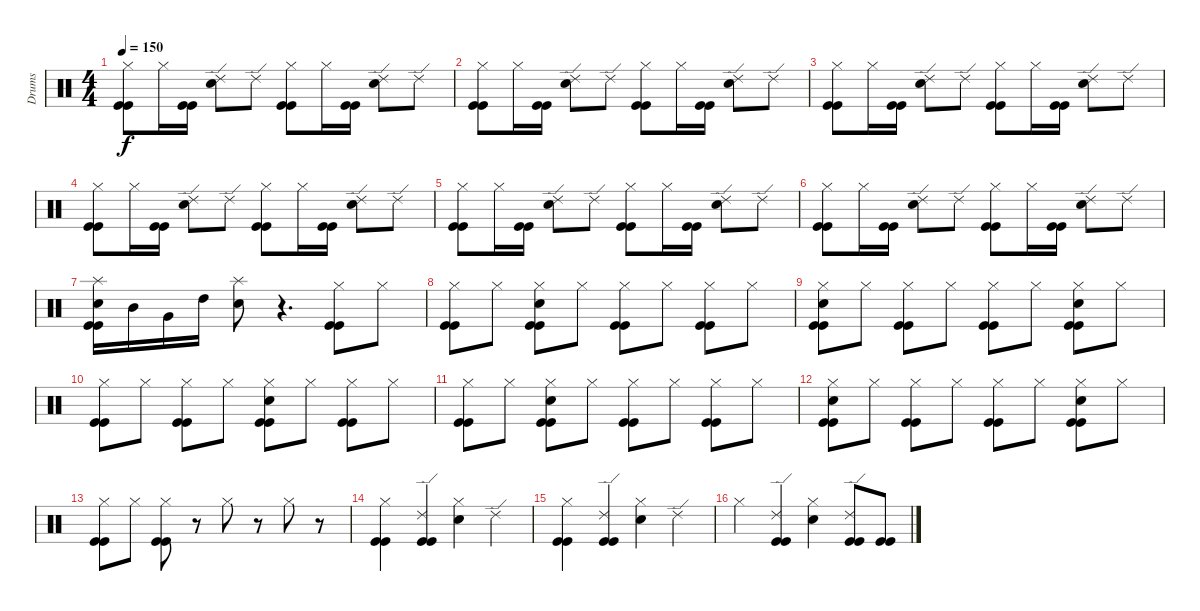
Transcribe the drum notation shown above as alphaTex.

\track ("Drums" "Drums") {instrument percussion}
\staff {score}
\articulation defaults
\ts (4 4)
\tempo 150
\clef neutral
\ks c
("Hi-Hat (closed)" "Kick (hit)" "Kick (hit)").8{dy f} "Hi-Hat (closed)".16 ("Kick (hit)" "Kick (hit)").16 ("Ride (edge) 2" "Snare (hit) 2").8 "Ride (edge) 2".8 ("Hi-Hat (closed)" "Kick (hit)" "Kick (hit)").8 "Hi-Hat (closed)".16 ("Kick (hit)" "Kick (hit)").16 ("Ride (edge) 2" "Snare (hit) 2").8 "Ride (edge) 2".8 |
("Hi-Hat (closed)" "Kick (hit)" "Kick (hit)").8 "Hi-Hat (closed)".16 ("Kick (hit)" "Kick (hit)").16 ("Ride (edge) 2" "Snare (hit) 2").8 "Ride (edge) 2".8 ("Hi-Hat (closed)" "Kick (hit)" "Kick (hit)").8 "Hi-Hat (closed)".16 ("Kick (hit)" "Kick (hit)").16 ("Ride (edge) 2" "Snare (hit) 2").8 "Ride (edge) 2".8 |
("Hi-Hat (closed)" "Kick (hit)" "Kick (hit)").8 "Hi-Hat (closed)".16 ("Kick (hit)" "Kick (hit)").16 ("Ride (edge) 2" "Snare (hit) 2").8 "Ride (edge) 2".8 ("Hi-Hat (closed)" "Kick (hit)" "Kick (hit)").8 "Hi-Hat (closed)".16 ("Kick (hit)" "Kick (hit)").16 ("Ride (edge) 2" "Snare (hit) 2").8 "Ride (edge) 2".8 |
("Hi-Hat (closed)" "Kick (hit)" "Kick (hit)").8 "Hi-Hat (closed)".16 ("Kick (hit)" "Kick (hit)").16 ("Ride (edge) 2" "Snare (hit) 2").8 "Ride (edge) 2".8 ("Hi-Hat (closed)" "Kick (hit)" "Kick (hit)").8 "Hi-Hat (closed)".16 ("Kick (hit)" "Kick (hit)").16 ("Ride (edge) 2" "Snare (hit) 2").8 "Ride (edge) 2".8 |
("Hi-Hat (closed)" "Kick (hit)" "Kick (hit)").8 "Hi-Hat (closed)".16 ("Kick (hit)" "Kick (hit)").16 ("Ride (edge) 2" "Snare (hit) 2").8 "Ride (edge) 2".8 ("Hi-Hat (closed)" "Kick (hit)" "Kick (hit)").8 "Hi-Hat (closed)".16 ("Kick (hit)" "Kick (hit)").16 ("Ride (edge) 2" "Snare (hit) 2").8 "Ride (edge) 2".8 |
("Hi-Hat (closed)" "Kick (hit)" "Kick (hit)").8 "Hi-Hat (closed)".16 ("Kick (hit)" "Kick (hit)").16 ("Ride (edge) 2" "Snare (hit) 2").8 "Ride (edge) 2".8 ("Hi-Hat (closed)" "Kick (hit)" "Kick (hit)").8 "Hi-Hat (closed)".16 ("Kick (hit)" "Kick (hit)").16 ("Ride (edge) 2" "Snare (hit) 2").8 "Ride (edge) 2".8 |
("Splash (hit)" "Snare (hit) 2" "Kick (hit)" "Kick (hit)").16 "Mid Tom (hit)".16 "Very Low Tom (hit)".16 "High Tom (hit)".16 ("Splash (hit)" "Snare (hit) 2").8 r.4{d} ("Hi-Hat (closed)" "Kick (hit)" "Kick (hit)").8 "Hi-Hat (closed)".8 |
("Hi-Hat (closed)" "Kick (hit)" "Kick (hit)").8 "Hi-Hat (closed)".8 ("Hi-Hat (closed)" "Snare (hit) 2" "Kick (hit)" "Kick (hit)").8 "Hi-Hat (closed)".8 ("Hi-Hat (closed)" "Kick (hit)" "Kick (hit)").8 "Hi-Hat (closed)".8 ("Hi-Hat (closed)" "Kick (hit)" "Kick (hit)").8 "Hi-Hat (closed)".8 |
("Hi-Hat (closed)" "Snare (hit) 2" "Kick (hit)" "Kick (hit)").8 "Hi-Hat (closed)".8 ("Hi-Hat (closed)" "Kick (hit)" "Kick (hit)").8 "Hi-Hat (closed)".8 ("Hi-Hat (closed)" "Kick (hit)" "Kick (hit)").8 "Hi-Hat (closed)".8 ("Hi-Hat (closed)" "Snare (hit) 2" "Kick (hit)" "Kick (hit)").8 "Hi-Hat (closed)".8 |
("Hi-Hat (closed)" "Kick (hit)" "Kick (hit)").8 "Hi-Hat (closed)".8 ("Hi-Hat (closed)" "Kick (hit)" "Kick (hit)").8 "Hi-Hat (closed)".8 ("Hi-Hat (closed)" "Snare (hit) 2" "Kick (hit)" "Kick (hit)").8 "Hi-Hat (closed)".8 ("Hi-Hat (closed)" "Kick (hit)" "Kick (hit)").8 "Hi-Hat (closed)".8 |
("Hi-Hat (closed)" "Kick (hit)" "Kick (hit)").8 "Hi-Hat (closed)".8 ("Hi-Hat (closed)" "Snare (hit) 2" "Kick (hit)" "Kick (hit)").8 "Hi-Hat (closed)".8 ("Hi-Hat (closed)" "Kick (hit)" "Kick (hit)").8 "Hi-Hat (closed)".8 ("Hi-Hat (closed)" "Kick (hit)" "Kick (hit)").8 "Hi-Hat (closed)".8 |
("Hi-Hat (closed)" "Snare (hit) 2" "Kick (hit)" "Kick (hit)").8 "Hi-Hat (closed)".8 ("Hi-Hat (closed)" "Kick (hit)" "Kick (hit)").8 "Hi-Hat (closed)".8 ("Hi-Hat (closed)" "Kick (hit)" "Kick (hit)").8 "Hi-Hat (closed)".8 ("Hi-Hat (closed)" "Snare (hit) 2" "Kick (hit)" "Kick (hit)").8 "Hi-Hat (closed)".8 |
("Hi-Hat (closed)" "Kick (hit)" "Kick (hit)").8 "Hi-Hat (closed)".8 ("Hi-Hat (closed)" "Kick (hit)" "Kick (hit)").8 r.8 "Hi-Hat (closed)".8 r.8 "Hi-Hat (closed)".8 r.8 |
("Hi-Hat (closed)" "Kick (hit)" "Kick (hit)").4 ("Ride (edge) 2" "Kick (hit)" "Kick (hit)").4 ("Hi-Hat (closed)" "Snare (hit) 2").4 "Ride (edge) 2".4 |
("Hi-Hat (closed)" "Kick (hit)" "Kick (hit)").4 ("Ride (edge) 2" "Kick (hit)" "Kick (hit)").4 ("Hi-Hat (closed)" "Snare (hit) 2").4 "Ride (edge) 2".4 |
"Hi-Hat (closed)".4 ("Ride (edge) 2" "Kick (hit)" "Kick (hit)").4 ("Hi-Hat (closed)" "Snare (hit) 2").4 ("Ride (edge) 2" "Kick (hit)" "Kick (hit)").8 ("Kick (hit)" "Kick (hit)").8
